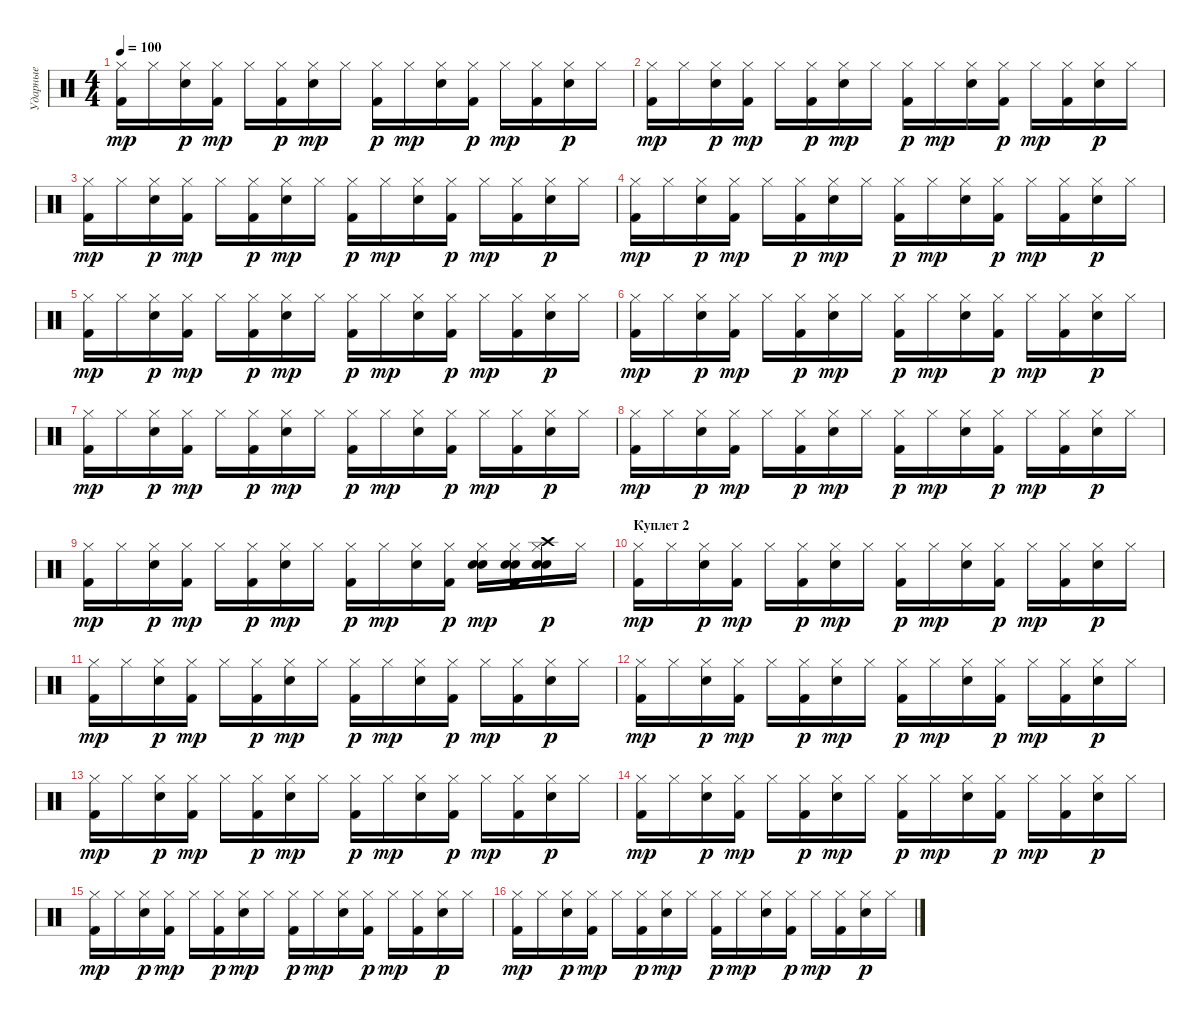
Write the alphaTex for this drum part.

\track ("Ударные" "Ударные") {instrument percussion}
\staff {score}
\articulation defaults
\ts (4 4)
\tempo 100
\clef neutral
\ks c
("Hi-Hat (closed)" "Kick (hit) 2").16{dy mp} "Hi-Hat (closed)".16 ("Hi-Hat (closed)" "Electric Snare (hit)").16{dy p} ("Hi-Hat (closed)" "Kick (hit) 2").16{dy mp} "Hi-Hat (closed)".16 ("Hi-Hat (closed)" "Kick (hit) 2").16{dy p} ("Hi-Hat (closed)" "Electric Snare (hit)").16{dy mp} "Hi-Hat (closed)".16 ("Hi-Hat (closed)" "Kick (hit) 2").16{dy p} "Hi-Hat (closed)".16{dy mp} ("Hi-Hat (closed)" "Electric Snare (hit)").16 ("Hi-Hat (closed)" "Kick (hit) 2").16{dy p} "Hi-Hat (closed)".16{dy mp} ("Hi-Hat (closed)" "Kick (hit) 2").16 ("Hi-Hat (closed)" "Electric Snare (hit)").16{dy p} "Hi-Hat (closed)".16 |
("Hi-Hat (closed)" "Kick (hit) 2").16{dy mp} "Hi-Hat (closed)".16 ("Hi-Hat (closed)" "Electric Snare (hit)").16{dy p} ("Hi-Hat (closed)" "Kick (hit) 2").16{dy mp} "Hi-Hat (closed)".16 ("Hi-Hat (closed)" "Kick (hit) 2").16{dy p} ("Hi-Hat (closed)" "Electric Snare (hit)").16{dy mp} "Hi-Hat (closed)".16 ("Hi-Hat (closed)" "Kick (hit) 2").16{dy p} "Hi-Hat (closed)".16{dy mp} ("Hi-Hat (closed)" "Electric Snare (hit)").16 ("Hi-Hat (closed)" "Kick (hit) 2").16{dy p} "Hi-Hat (closed)".16{dy mp} ("Hi-Hat (closed)" "Kick (hit) 2").16 ("Hi-Hat (closed)" "Electric Snare (hit)").16{dy p} "Hi-Hat (closed)".16 |
("Hi-Hat (closed)" "Kick (hit) 2").16{dy mp} "Hi-Hat (closed)".16 ("Hi-Hat (closed)" "Electric Snare (hit)").16{dy p} ("Hi-Hat (closed)" "Kick (hit) 2").16{dy mp} "Hi-Hat (closed)".16 ("Hi-Hat (closed)" "Kick (hit) 2").16{dy p} ("Hi-Hat (closed)" "Electric Snare (hit)").16{dy mp} "Hi-Hat (closed)".16 ("Hi-Hat (closed)" "Kick (hit) 2").16{dy p} "Hi-Hat (closed)".16{dy mp} ("Hi-Hat (closed)" "Electric Snare (hit)").16 ("Hi-Hat (closed)" "Kick (hit) 2").16{dy p} "Hi-Hat (closed)".16{dy mp} ("Hi-Hat (closed)" "Kick (hit) 2").16 ("Hi-Hat (closed)" "Electric Snare (hit)").16{dy p} "Hi-Hat (closed)".16 |
("Hi-Hat (closed)" "Kick (hit) 2").16{dy mp} "Hi-Hat (closed)".16 ("Hi-Hat (closed)" "Electric Snare (hit)").16{dy p} ("Hi-Hat (closed)" "Kick (hit) 2").16{dy mp} "Hi-Hat (closed)".16 ("Hi-Hat (closed)" "Kick (hit) 2").16{dy p} ("Hi-Hat (closed)" "Electric Snare (hit)").16{dy mp} "Hi-Hat (closed)".16 ("Hi-Hat (closed)" "Kick (hit) 2").16{dy p} "Hi-Hat (closed)".16{dy mp} ("Hi-Hat (closed)" "Electric Snare (hit)").16 ("Hi-Hat (closed)" "Kick (hit) 2").16{dy p} "Hi-Hat (closed)".16{dy mp} ("Hi-Hat (closed)" "Kick (hit) 2").16 ("Hi-Hat (closed)" "Electric Snare (hit)").16{dy p} "Hi-Hat (closed)".16 |
("Hi-Hat (closed)" "Kick (hit) 2").16{dy mp} "Hi-Hat (closed)".16 ("Hi-Hat (closed)" "Electric Snare (hit)").16{dy p} ("Hi-Hat (closed)" "Kick (hit) 2").16{dy mp} "Hi-Hat (closed)".16 ("Hi-Hat (closed)" "Kick (hit) 2").16{dy p} ("Hi-Hat (closed)" "Electric Snare (hit)").16{dy mp} "Hi-Hat (closed)".16 ("Hi-Hat (closed)" "Kick (hit) 2").16{dy p} "Hi-Hat (closed)".16{dy mp} ("Hi-Hat (closed)" "Electric Snare (hit)").16 ("Hi-Hat (closed)" "Kick (hit) 2").16{dy p} "Hi-Hat (closed)".16{dy mp} ("Hi-Hat (closed)" "Kick (hit) 2").16 ("Hi-Hat (closed)" "Electric Snare (hit)").16{dy p} "Hi-Hat (closed)".16 |
("Hi-Hat (closed)" "Kick (hit) 2").16{dy mp} "Hi-Hat (closed)".16 ("Hi-Hat (closed)" "Electric Snare (hit)").16{dy p} ("Hi-Hat (closed)" "Kick (hit) 2").16{dy mp} "Hi-Hat (closed)".16 ("Hi-Hat (closed)" "Kick (hit) 2").16{dy p} ("Hi-Hat (closed)" "Electric Snare (hit)").16{dy mp} "Hi-Hat (closed)".16 ("Hi-Hat (closed)" "Kick (hit) 2").16{dy p} "Hi-Hat (closed)".16{dy mp} ("Hi-Hat (closed)" "Electric Snare (hit)").16 ("Hi-Hat (closed)" "Kick (hit) 2").16{dy p} "Hi-Hat (closed)".16{dy mp} ("Hi-Hat (closed)" "Kick (hit) 2").16 ("Hi-Hat (closed)" "Electric Snare (hit)").16{dy p} "Hi-Hat (closed)".16 |
("Hi-Hat (closed)" "Kick (hit) 2").16{dy mp} "Hi-Hat (closed)".16 ("Hi-Hat (closed)" "Electric Snare (hit)").16{dy p} ("Hi-Hat (closed)" "Kick (hit) 2").16{dy mp} "Hi-Hat (closed)".16 ("Hi-Hat (closed)" "Kick (hit) 2").16{dy p} ("Hi-Hat (closed)" "Electric Snare (hit)").16{dy mp} "Hi-Hat (closed)".16 ("Hi-Hat (closed)" "Kick (hit) 2").16{dy p} "Hi-Hat (closed)".16{dy mp} ("Hi-Hat (closed)" "Electric Snare (hit)").16 ("Hi-Hat (closed)" "Kick (hit) 2").16{dy p} "Hi-Hat (closed)".16{dy mp} ("Hi-Hat (closed)" "Kick (hit) 2").16 ("Hi-Hat (closed)" "Electric Snare (hit)").16{dy p} "Hi-Hat (closed)".16 |
("Hi-Hat (closed)" "Kick (hit) 2").16{dy mp} "Hi-Hat (closed)".16 ("Hi-Hat (closed)" "Electric Snare (hit)").16{dy p} ("Hi-Hat (closed)" "Kick (hit) 2").16{dy mp} "Hi-Hat (closed)".16 ("Hi-Hat (closed)" "Kick (hit) 2").16{dy p} ("Hi-Hat (closed)" "Electric Snare (hit)").16{dy mp} "Hi-Hat (closed)".16 ("Hi-Hat (closed)" "Kick (hit) 2").16{dy p} "Hi-Hat (closed)".16{dy mp} ("Hi-Hat (closed)" "Electric Snare (hit)").16 ("Hi-Hat (closed)" "Kick (hit) 2").16{dy p} "Hi-Hat (closed)".16{dy mp} ("Hi-Hat (closed)" "Kick (hit) 2").16 ("Hi-Hat (closed)" "Electric Snare (hit)").16{dy p} "Hi-Hat (closed)".16 |
("Hi-Hat (closed)" "Kick (hit) 2").16{dy mp} "Hi-Hat (closed)".16 ("Hi-Hat (closed)" "Electric Snare (hit)").16{dy p} ("Hi-Hat (closed)" "Kick (hit) 2").16{dy mp} "Hi-Hat (closed)".16 ("Hi-Hat (closed)" "Kick (hit) 2").16{dy p} ("Hi-Hat (closed)" "Electric Snare (hit)").16{dy mp} "Hi-Hat (closed)".16 ("Hi-Hat (closed)" "Kick (hit) 2").16{dy p} "Hi-Hat (closed)".16{dy mp} ("Hi-Hat (closed)" "Electric Snare (hit)").16 ("Hi-Hat (closed)" "Kick (hit) 2").16{dy p} ("Hi-Hat (closed)" "Electric Snare (hit)" "Electric Snare (hit)").16{dy mp} ("Hi-Hat (closed)" "Electric Snare (hit)" "Kick (hit) 2" "Electric Snare (hit)").16 ("Hi-Hat (closed)" "Electric Snare (hit)" "Crash high (hit)" "Electric Snare (hit)").16{dy p} "Hi-Hat (closed)".16 |
\section ("" "Куплет 2")
("Hi-Hat (closed)" "Kick (hit) 2").16{dy mp} "Hi-Hat (closed)".16 ("Hi-Hat (closed)" "Electric Snare (hit)").16{dy p} ("Hi-Hat (closed)" "Kick (hit) 2").16{dy mp} "Hi-Hat (closed)".16 ("Hi-Hat (closed)" "Kick (hit) 2").16{dy p} ("Hi-Hat (closed)" "Electric Snare (hit)").16{dy mp} "Hi-Hat (closed)".16 ("Hi-Hat (closed)" "Kick (hit) 2").16{dy p} "Hi-Hat (closed)".16{dy mp} ("Hi-Hat (closed)" "Electric Snare (hit)").16 ("Hi-Hat (closed)" "Kick (hit) 2").16{dy p} "Hi-Hat (closed)".16{dy mp} ("Hi-Hat (closed)" "Kick (hit) 2").16 ("Hi-Hat (closed)" "Electric Snare (hit)").16{dy p} "Hi-Hat (closed)".16 |
("Hi-Hat (closed)" "Kick (hit) 2").16{dy mp} "Hi-Hat (closed)".16 ("Hi-Hat (closed)" "Electric Snare (hit)").16{dy p} ("Hi-Hat (closed)" "Kick (hit) 2").16{dy mp} "Hi-Hat (closed)".16 ("Hi-Hat (closed)" "Kick (hit) 2").16{dy p} ("Hi-Hat (closed)" "Electric Snare (hit)").16{dy mp} "Hi-Hat (closed)".16 ("Hi-Hat (closed)" "Kick (hit) 2").16{dy p} "Hi-Hat (closed)".16{dy mp} ("Hi-Hat (closed)" "Electric Snare (hit)").16 ("Hi-Hat (closed)" "Kick (hit) 2").16{dy p} "Hi-Hat (closed)".16{dy mp} ("Hi-Hat (closed)" "Kick (hit) 2").16 ("Hi-Hat (closed)" "Electric Snare (hit)").16{dy p} "Hi-Hat (closed)".16 |
("Hi-Hat (closed)" "Kick (hit) 2").16{dy mp} "Hi-Hat (closed)".16 ("Hi-Hat (closed)" "Electric Snare (hit)").16{dy p} ("Hi-Hat (closed)" "Kick (hit) 2").16{dy mp} "Hi-Hat (closed)".16 ("Hi-Hat (closed)" "Kick (hit) 2").16{dy p} ("Hi-Hat (closed)" "Electric Snare (hit)").16{dy mp} "Hi-Hat (closed)".16 ("Hi-Hat (closed)" "Kick (hit) 2").16{dy p} "Hi-Hat (closed)".16{dy mp} ("Hi-Hat (closed)" "Electric Snare (hit)").16 ("Hi-Hat (closed)" "Kick (hit) 2").16{dy p} "Hi-Hat (closed)".16{dy mp} ("Hi-Hat (closed)" "Kick (hit) 2").16 ("Hi-Hat (closed)" "Electric Snare (hit)").16{dy p} "Hi-Hat (closed)".16 |
("Hi-Hat (closed)" "Kick (hit) 2").16{dy mp} "Hi-Hat (closed)".16 ("Hi-Hat (closed)" "Electric Snare (hit)").16{dy p} ("Hi-Hat (closed)" "Kick (hit) 2").16{dy mp} "Hi-Hat (closed)".16 ("Hi-Hat (closed)" "Kick (hit) 2").16{dy p} ("Hi-Hat (closed)" "Electric Snare (hit)").16{dy mp} "Hi-Hat (closed)".16 ("Hi-Hat (closed)" "Kick (hit) 2").16{dy p} "Hi-Hat (closed)".16{dy mp} ("Hi-Hat (closed)" "Electric Snare (hit)").16 ("Hi-Hat (closed)" "Kick (hit) 2").16{dy p} "Hi-Hat (closed)".16{dy mp} ("Hi-Hat (closed)" "Kick (hit) 2").16 ("Hi-Hat (closed)" "Electric Snare (hit)").16{dy p} "Hi-Hat (closed)".16 |
("Hi-Hat (closed)" "Kick (hit) 2").16{dy mp} "Hi-Hat (closed)".16 ("Hi-Hat (closed)" "Electric Snare (hit)").16{dy p} ("Hi-Hat (closed)" "Kick (hit) 2").16{dy mp} "Hi-Hat (closed)".16 ("Hi-Hat (closed)" "Kick (hit) 2").16{dy p} ("Hi-Hat (closed)" "Electric Snare (hit)").16{dy mp} "Hi-Hat (closed)".16 ("Hi-Hat (closed)" "Kick (hit) 2").16{dy p} "Hi-Hat (closed)".16{dy mp} ("Hi-Hat (closed)" "Electric Snare (hit)").16 ("Hi-Hat (closed)" "Kick (hit) 2").16{dy p} "Hi-Hat (closed)".16{dy mp} ("Hi-Hat (closed)" "Kick (hit) 2").16 ("Hi-Hat (closed)" "Electric Snare (hit)").16{dy p} "Hi-Hat (closed)".16 |
("Hi-Hat (closed)" "Kick (hit) 2").16{dy mp} "Hi-Hat (closed)".16 ("Hi-Hat (closed)" "Electric Snare (hit)").16{dy p} ("Hi-Hat (closed)" "Kick (hit) 2").16{dy mp} "Hi-Hat (closed)".16 ("Hi-Hat (closed)" "Kick (hit) 2").16{dy p} ("Hi-Hat (closed)" "Electric Snare (hit)").16{dy mp} "Hi-Hat (closed)".16 ("Hi-Hat (closed)" "Kick (hit) 2").16{dy p} "Hi-Hat (closed)".16{dy mp} ("Hi-Hat (closed)" "Electric Snare (hit)").16 ("Hi-Hat (closed)" "Kick (hit) 2").16{dy p} "Hi-Hat (closed)".16{dy mp} ("Hi-Hat (closed)" "Kick (hit) 2").16 ("Hi-Hat (closed)" "Electric Snare (hit)").16{dy p} "Hi-Hat (closed)".16 |
("Hi-Hat (closed)" "Kick (hit) 2").16{dy mp} "Hi-Hat (closed)".16 ("Hi-Hat (closed)" "Electric Snare (hit)").16{dy p} ("Hi-Hat (closed)" "Kick (hit) 2").16{dy mp} "Hi-Hat (closed)".16 ("Hi-Hat (closed)" "Kick (hit) 2").16{dy p} ("Hi-Hat (closed)" "Electric Snare (hit)").16{dy mp} "Hi-Hat (closed)".16 ("Hi-Hat (closed)" "Kick (hit) 2").16{dy p} "Hi-Hat (closed)".16{dy mp} ("Hi-Hat (closed)" "Electric Snare (hit)").16 ("Hi-Hat (closed)" "Kick (hit) 2").16{dy p} "Hi-Hat (closed)".16{dy mp} ("Hi-Hat (closed)" "Kick (hit) 2").16 ("Hi-Hat (closed)" "Electric Snare (hit)").16{dy p} "Hi-Hat (closed)".16
